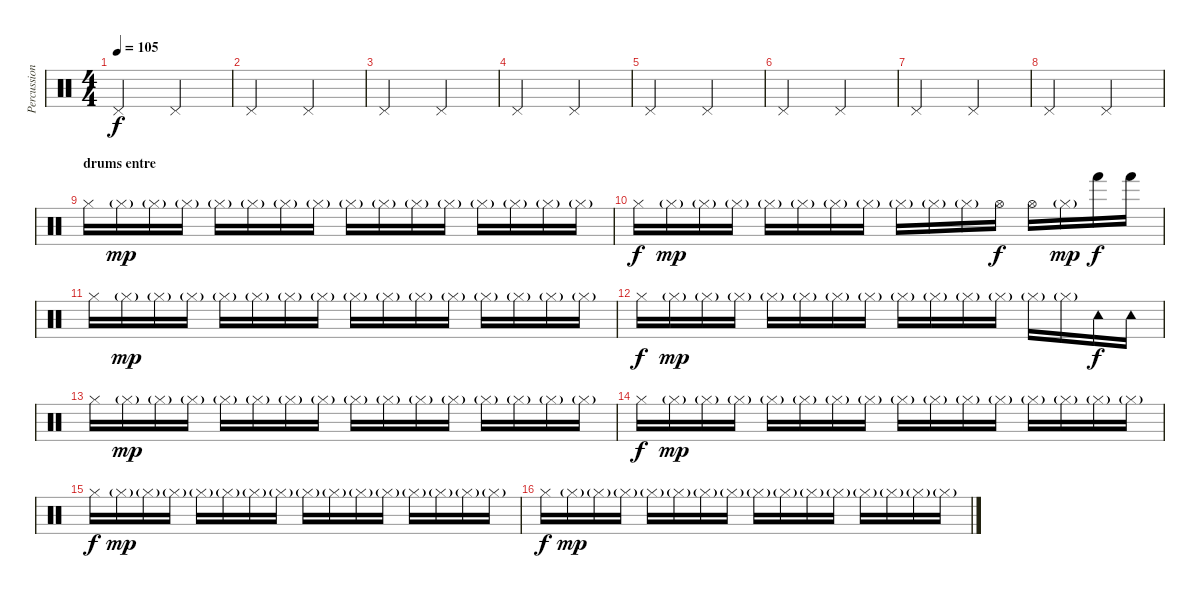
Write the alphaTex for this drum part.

\track ("Percussions" "Percussion") {instrument percussion}
\staff {score}
\articulation defaults
\ts (4 4)
\tempo 105
\clef neutral
\ks c "Pedal Hi-Hat (hit)".2{dy f} "Pedal Hi-Hat (hit)".2
|
"Pedal Hi-Hat (hit)".2 "Pedal Hi-Hat (hit)".2 |
"Pedal Hi-Hat (hit)".2 "Pedal Hi-Hat (hit)".2 |
"Pedal Hi-Hat (hit)".2 "Pedal Hi-Hat (hit)".2 |
"Pedal Hi-Hat (hit)".2 "Pedal Hi-Hat (hit)".2 |
"Pedal Hi-Hat (hit)".2 "Pedal Hi-Hat (hit)".2 |
"Pedal Hi-Hat (hit)".2 "Pedal Hi-Hat (hit)".2 |
"Pedal Hi-Hat (hit)".2 "Pedal Hi-Hat (hit)".2 |
\section ("" "drums entre")
"Hi-Hat (closed)".16 "Hi-Hat (closed)"{g}.16{dy mp} "Hi-Hat (closed)"{g}.16 "Hi-Hat (closed)"{g}.16 "Hi-Hat (closed)"{g}.16 "Hi-Hat (closed)"{g}.16 "Hi-Hat (closed)"{g}.16 "Hi-Hat (closed)"{g}.16 "Hi-Hat (closed)"{g}.16 "Hi-Hat (closed)"{g}.16 "Hi-Hat (closed)"{g}.16 "Hi-Hat (closed)"{g}.16 "Hi-Hat (closed)"{g}.16 "Hi-Hat (closed)"{g}.16 "Hi-Hat (closed)"{g}.16 "Hi-Hat (closed)"{g}.16 |
"Hi-Hat (closed)".16{dy f} "Hi-Hat (closed)"{g}.16{dy mp} "Hi-Hat (closed)"{g}.16 "Hi-Hat (closed)"{g}.16 "Hi-Hat (closed)"{g}.16 "Hi-Hat (closed)"{g}.16 "Hi-Hat (closed)"{g}.16 "Hi-Hat (closed)"{g}.16 "Hi-Hat (closed)"{g}.16 "Hi-Hat (closed)"{g}.16 "Hi-Hat (closed)"{g}.16 "Hi-Hat (open)".16{dy f} "Hi-Hat (open)".16 "Hi-Hat (closed)"{g}.16{dy mp} "Hand (hit)".16{dy f} "Hand (hit)".16 |
"Hi-Hat (closed)".16 "Hi-Hat (closed)"{g}.16{dy mp} "Hi-Hat (closed)"{g}.16 "Hi-Hat (closed)"{g}.16 "Hi-Hat (closed)"{g}.16 "Hi-Hat (closed)"{g}.16 "Hi-Hat (closed)"{g}.16 "Hi-Hat (closed)"{g}.16 "Hi-Hat (closed)"{g}.16 "Hi-Hat (closed)"{g}.16 "Hi-Hat (closed)"{g}.16 "Hi-Hat (closed)"{g}.16 "Hi-Hat (closed)"{g}.16 "Hi-Hat (closed)"{g}.16 "Hi-Hat (closed)"{g}.16 "Hi-Hat (closed)"{g}.16 |
"Hi-Hat (closed)".16{dy f} "Hi-Hat (closed)"{g}.16{dy mp} "Hi-Hat (closed)"{g}.16 "Hi-Hat (closed)"{g}.16 "Hi-Hat (closed)"{g}.16 "Hi-Hat (closed)"{g}.16 "Hi-Hat (closed)"{g}.16 "Hi-Hat (closed)"{g}.16 "Hi-Hat (closed)"{g}.16 "Hi-Hat (closed)"{g}.16 "Hi-Hat (closed)"{g}.16 "Hi-Hat (closed)"{g}.16 "Hi-Hat (closed)"{g}.16 "Hi-Hat (closed)"{g}.16 "Tambourine (hit)".16{dy f} "Tambourine (hit)".16 |
"Hi-Hat (closed)".16 "Hi-Hat (closed)"{g}.16{dy mp} "Hi-Hat (closed)"{g}.16 "Hi-Hat (closed)"{g}.16 "Hi-Hat (closed)"{g}.16 "Hi-Hat (closed)"{g}.16 "Hi-Hat (closed)"{g}.16 "Hi-Hat (closed)"{g}.16 "Hi-Hat (closed)"{g}.16 "Hi-Hat (closed)"{g}.16 "Hi-Hat (closed)"{g}.16 "Hi-Hat (closed)"{g}.16 "Hi-Hat (closed)"{g}.16 "Hi-Hat (closed)"{g}.16 "Hi-Hat (closed)"{g}.16 "Hi-Hat (closed)"{g}.16 |
"Hi-Hat (closed)".16{dy f} "Hi-Hat (closed)"{g}.16{dy mp} "Hi-Hat (closed)"{g}.16 "Hi-Hat (closed)"{g}.16 "Hi-Hat (closed)"{g}.16 "Hi-Hat (closed)"{g}.16 "Hi-Hat (closed)"{g}.16 "Hi-Hat (closed)"{g}.16 "Hi-Hat (closed)"{g}.16 "Hi-Hat (closed)"{g}.16 "Hi-Hat (closed)"{g}.16 "Hi-Hat (closed)"{g}.16 "Hi-Hat (closed)"{g}.16 "Hi-Hat (closed)"{g}.16 "Hi-Hat (closed)"{g}.16 "Hi-Hat (closed)"{g}.16 |
"Hi-Hat (closed)".16{dy f} "Hi-Hat (closed)"{g}.16{dy mp} "Hi-Hat (closed)"{g}.16 "Hi-Hat (closed)"{g}.16 "Hi-Hat (closed)"{g}.16 "Hi-Hat (closed)"{g}.16 "Hi-Hat (closed)"{g}.16 "Hi-Hat (closed)"{g}.16 "Hi-Hat (closed)"{g}.16 "Hi-Hat (closed)"{g}.16 "Hi-Hat (closed)"{g}.16 "Hi-Hat (closed)"{g}.16 "Hi-Hat (closed)"{g}.16 "Hi-Hat (closed)"{g}.16 "Hi-Hat (closed)"{g}.16 "Hi-Hat (closed)"{g}.16 |
"Hi-Hat (closed)".16{dy f} "Hi-Hat (closed)"{g}.16{dy mp} "Hi-Hat (closed)"{g}.16 "Hi-Hat (closed)"{g}.16 "Hi-Hat (closed)"{g}.16 "Hi-Hat (closed)"{g}.16 "Hi-Hat (closed)"{g}.16 "Hi-Hat (closed)"{g}.16 "Hi-Hat (closed)"{g}.16 "Hi-Hat (closed)"{g}.16 "Hi-Hat (closed)"{g}.16 "Hi-Hat (closed)"{g}.16 "Hi-Hat (closed)"{g}.16 "Hi-Hat (closed)"{g}.16 "Hi-Hat (closed)"{g}.16 "Hi-Hat (closed)"{g}.16
